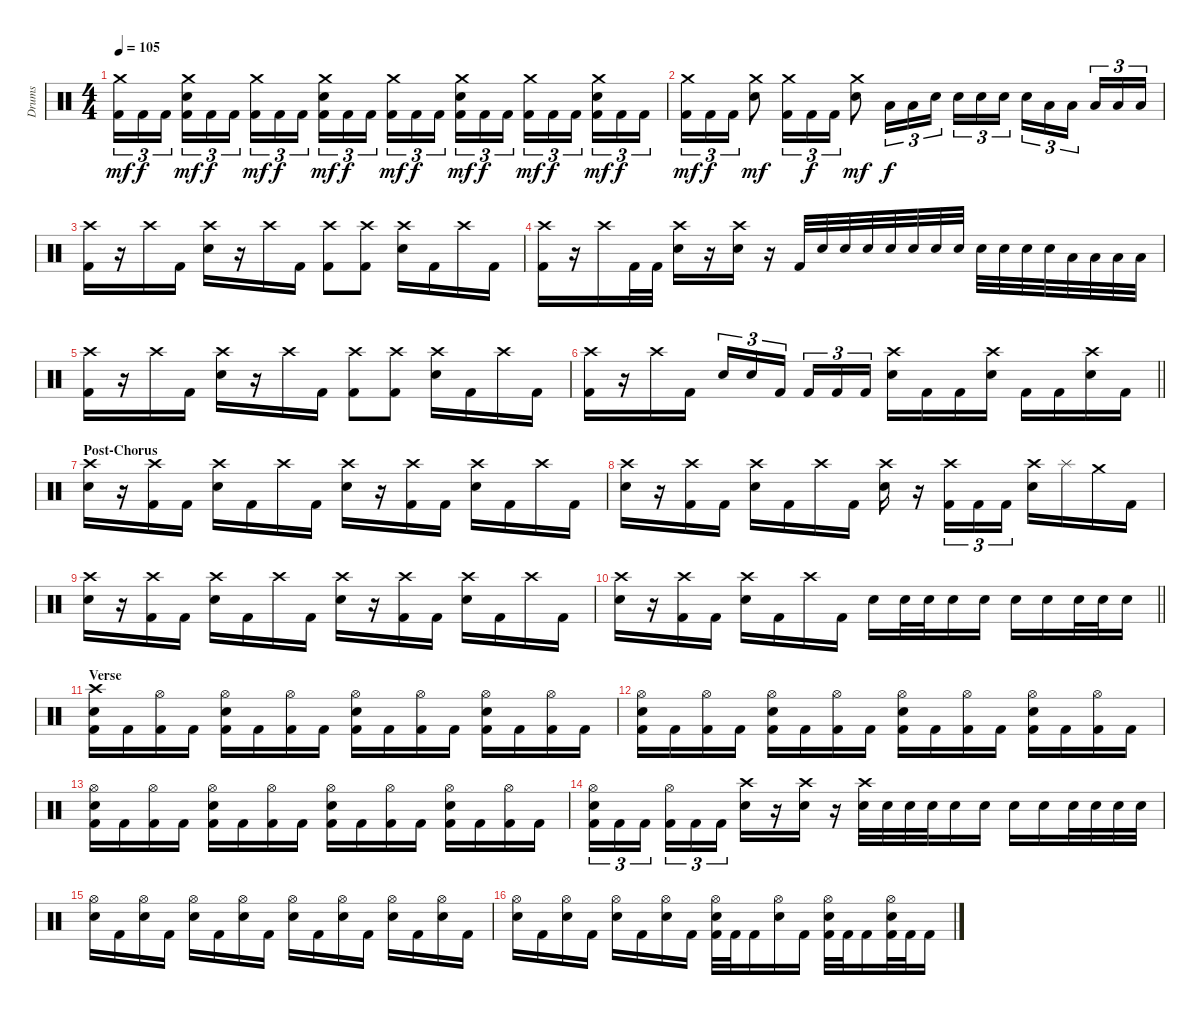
\track ("Drums" "Drums") {instrument percussion}
\staff {score}
\articulation defaults
\ts (4 4)
\tempo 105
\clef neutral
\ks c
("Crash medium (hit)" "Kick (hit) 2").16{tu (3 2) dy mf} "Kick (hit) 2".16{tu (3 2) dy f} "Kick (hit) 2".16{tu (3 2) beam splitsecondary} ("Crash medium (hit)" "Electric Snare (hit)" "Kick (hit) 2").16{tu (3 2) dy mf} "Kick (hit) 2".16{tu (3 2) dy f} "Kick (hit) 2".16{tu (3 2)} ("Crash medium (hit)" "Kick (hit) 2").16{tu (3 2) dy mf} "Kick (hit) 2".16{tu (3 2) dy f} "Kick (hit) 2".16{tu (3 2) beam splitsecondary} ("Crash medium (hit)" "Electric Snare (hit)" "Kick (hit) 2").16{tu (3 2) dy mf} "Kick (hit) 2".16{tu (3 2) dy f} "Kick (hit) 2".16{tu (3 2)} ("Crash medium (hit)" "Kick (hit) 2").16{tu (3 2) dy mf} "Kick (hit) 2".16{tu (3 2) dy f} "Kick (hit) 2".16{tu (3 2) beam splitsecondary} ("Crash medium (hit)" "Electric Snare (hit)" "Kick (hit) 2").16{tu (3 2) dy mf} "Kick (hit) 2".16{tu (3 2) dy f} "Kick (hit) 2".16{tu (3 2)} ("Crash medium (hit)" "Kick (hit) 2").16{tu (3 2) dy mf} "Kick (hit) 2".16{tu (3 2) dy f} "Kick (hit) 2".16{tu (3 2) beam splitsecondary} ("Crash medium (hit)" "Electric Snare (hit)" "Kick (hit) 2").16{tu (3 2) dy mf} "Kick (hit) 2".16{tu (3 2) dy f} "Kick (hit) 2".16{tu (3 2)} |
("Crash medium (hit)" "Kick (hit) 2").16{tu (3 2) dy mf} "Kick (hit) 2".16{tu (3 2) dy f} "Kick (hit) 2".16{tu (3 2)} ("Crash medium (hit)" "Electric Snare (hit)").8{dy mf} ("Crash medium (hit)" "Kick (hit) 2").16{tu (3 2)} "Kick (hit) 2".16{tu (3 2) dy f} "Kick (hit) 2".16{tu (3 2)} ("Crash medium (hit)" "Electric Snare (hit)").8{dy mf} "Low Tom (hit)".16{tu (3 2) dy f} "Low Tom (hit)".16{tu (3 2)} "Electric Snare (hit)".16{tu (3 2) beam splitsecondary} "Electric Snare (hit)".16{tu (3 2)} "Electric Snare (hit)".16{tu (3 2)} "Electric Snare (hit)".16{tu (3 2)} "Electric Snare (hit)".16{tu (3 2)} "Low Tom (hit)".16{tu (3 2)} "Low Tom (hit)".16{tu (3 2) beam splitsecondary} "Low Floor Tom (hit)".16{tu (3 2)} "Low Floor Tom (hit)".16{tu (3 2)} "Low Floor Tom (hit)".16{tu (3 2)} |
("Crash high (hit)" "Kick (hit) 2").16 r.16 "Crash high (hit)".16 "Kick (hit) 2".16 ("Crash high (hit)" "Electric Snare (hit)").16 r.16 "Crash high (hit)".16 "Kick (hit) 2".16 ("Crash high (hit)" "Kick (hit) 2").8 ("Crash high (hit)" "Kick (hit) 2").8 ("Crash high (hit)" "Electric Snare (hit)").16 "Kick (hit) 2".16 "Crash high (hit)".16 "Kick (hit) 2".16 |
("Crash high (hit)" "Kick (hit) 2").16 r.16 "Crash high (hit)".16 "Kick (hit) 2".32 "Kick (hit) 2".32 ("Crash high (hit)" "Electric Snare (hit)").16 r.16 ("Crash high (hit)" "Electric Snare (hit)").16 r.16 "Kick (hit) 2".32 "Electric Snare (hit)".32 "Electric Snare (hit)".32 "Electric Snare (hit)".32 "Electric Snare (hit)".32 "Electric Snare (hit)".32 "Electric Snare (hit)".32 "Electric Snare (hit)".32 "Electric Snare (hit)".32 "Electric Snare (hit)".32 "Electric Snare (hit)".32 "Electric Snare (hit)".32 "Low Tom (hit)".32 "Low Tom (hit)".32 "Low Tom (hit)".32 "Low Tom (hit)".32 |
("Crash high (hit)" "Kick (hit) 2").16 r.16 "Crash high (hit)".16 "Kick (hit) 2".16 ("Crash high (hit)" "Electric Snare (hit)").16 r.16 "Crash high (hit)".16 "Kick (hit) 2".16 ("Crash high (hit)" "Kick (hit) 2").8 ("Crash high (hit)" "Kick (hit) 2").8 ("Crash high (hit)" "Electric Snare (hit)").16 "Kick (hit) 2".16 "Crash high (hit)".16 "Kick (hit) 2".16 |
\barLineRight lightlight
("Crash high (hit)" "Kick (hit) 2").16 r.16 "Crash high (hit)".16 "Kick (hit) 2".16 "Electric Snare (hit)".16{tu (3 2)} "Electric Snare (hit)".16{tu (3 2)} "Kick (hit) 2".16{tu (3 2) beam splitsecondary} "Kick (hit) 2".16{tu (3 2)} "Kick (hit) 2".16{tu (3 2)} "Kick (hit) 2".16{tu (3 2)} ("Crash high (hit)" "Electric Snare (hit)").16 "Kick (hit) 2".16 "Kick (hit) 2".16 ("Crash high (hit)" "Electric Snare (hit)").16 "Kick (hit) 2".16 "Kick (hit) 2".16 ("Crash high (hit)" "Electric Snare (hit)").16 "Kick (hit) 2".16 |
\section ("" "Post-Chorus")
("Crash high (hit)" "Electric Snare (hit)").16 r.16 ("Crash high (hit)" "Kick (hit) 2").16 "Kick (hit) 2".16 ("Crash high (hit)" "Electric Snare (hit)").16 "Kick (hit) 2".16 "Crash high (hit)".16 "Kick (hit) 2".16 ("Crash high (hit)" "Electric Snare (hit)").16 r.16 ("Crash high (hit)" "Kick (hit) 2").16 "Kick (hit) 2".16 ("Crash high (hit)" "Electric Snare (hit)").16 "Kick (hit) 2".16 "Crash high (hit)".16 "Kick (hit) 2".16 |
("Crash high (hit)" "Electric Snare (hit)").16 r.16 ("Crash high (hit)" "Kick (hit) 2").16 "Kick (hit) 2".16 ("Crash high (hit)" "Electric Snare (hit)").16 "Kick (hit) 2".16 "Crash high (hit)".16 "Kick (hit) 2".16 ("Crash high (hit)" "Electric Snare (hit)").16 r.16 ("Crash high (hit)" "Kick (hit) 2").16{tu (3 2)} "Kick (hit) 2".16{tu (3 2)} "Kick (hit) 2".16{tu (3 2)} ("Crash high (hit)" "Electric Snare (hit)").16 "Splash (hit)".16 "Crash medium (hit)".16 "Kick (hit) 2".16 |
("Crash high (hit)" "Electric Snare (hit)").16 r.16 ("Crash high (hit)" "Kick (hit) 2").16 "Kick (hit) 2".16 ("Crash high (hit)" "Electric Snare (hit)").16 "Kick (hit) 2".16 "Crash high (hit)".16 "Kick (hit) 2".16 ("Crash high (hit)" "Electric Snare (hit)").16 r.16 ("Crash high (hit)" "Kick (hit) 2").16 "Kick (hit) 2".16 ("Crash high (hit)" "Electric Snare (hit)").16 "Kick (hit) 2".16 "Crash high (hit)".16 "Kick (hit) 2".16 |
\barLineRight lightlight
("Crash high (hit)" "Electric Snare (hit)").16 r.16 ("Crash high (hit)" "Kick (hit) 2").16 "Kick (hit) 2".16 ("Crash high (hit)" "Electric Snare (hit)").16 "Kick (hit) 2".16 "Crash high (hit)".16 "Kick (hit) 2".16 "Electric Snare (hit)".16 "Electric Snare (hit)".32 "Electric Snare (hit)".32 "Electric Snare (hit)".16 "Electric Snare (hit)".16 "Electric Snare (hit)".16 "Electric Snare (hit)".16 "Electric Snare (hit)".32 "Electric Snare (hit)".32 "Electric Snare (hit)".16 |
\section ("" "Verse")
("Crash high (hit)" "Electric Snare (hit)" "Kick (hit) 2").16 "Kick (hit) 2".16 ("Hi-Hat (open)" "Kick (hit) 2").16 "Kick (hit) 2".16 ("Hi-Hat (open)" "Electric Snare (hit)" "Kick (hit) 2").16 "Kick (hit) 2".16 ("Hi-Hat (open)" "Kick (hit) 2").16 "Kick (hit) 2".16 ("Hi-Hat (open)" "Electric Snare (hit)" "Kick (hit) 2").16 "Kick (hit) 2".16 ("Hi-Hat (open)" "Kick (hit) 2").16 "Kick (hit) 2".16 ("Hi-Hat (open)" "Electric Snare (hit)" "Kick (hit) 2").16 "Kick (hit) 2".16 ("Hi-Hat (open)" "Kick (hit) 2").16 "Kick (hit) 2".16 |
("Hi-Hat (open)" "Electric Snare (hit)" "Kick (hit) 2").16 "Kick (hit) 2".16 ("Hi-Hat (open)" "Kick (hit) 2").16 "Kick (hit) 2".16 ("Hi-Hat (open)" "Electric Snare (hit)" "Kick (hit) 2").16 "Kick (hit) 2".16 ("Hi-Hat (open)" "Kick (hit) 2").16 "Kick (hit) 2".16 ("Hi-Hat (open)" "Electric Snare (hit)" "Kick (hit) 2").16 "Kick (hit) 2".16 ("Hi-Hat (open)" "Kick (hit) 2").16 "Kick (hit) 2".16 ("Hi-Hat (open)" "Electric Snare (hit)" "Kick (hit) 2").16 "Kick (hit) 2".16 ("Hi-Hat (open)" "Kick (hit) 2").16 "Kick (hit) 2".16 |
("Hi-Hat (open)" "Electric Snare (hit)" "Kick (hit) 2").16 "Kick (hit) 2".16 ("Hi-Hat (open)" "Kick (hit) 2").16 "Kick (hit) 2".16 ("Hi-Hat (open)" "Electric Snare (hit)" "Kick (hit) 2").16 "Kick (hit) 2".16 ("Hi-Hat (open)" "Kick (hit) 2").16 "Kick (hit) 2".16 ("Hi-Hat (open)" "Electric Snare (hit)" "Kick (hit) 2").16 "Kick (hit) 2".16 ("Hi-Hat (open)" "Kick (hit) 2").16 "Kick (hit) 2".16 ("Hi-Hat (open)" "Electric Snare (hit)" "Kick (hit) 2").16 "Kick (hit) 2".16 ("Hi-Hat (open)" "Kick (hit) 2").16 "Kick (hit) 2".16 |
("Hi-Hat (open)" "Electric Snare (hit)" "Kick (hit) 2").16{tu (3 2)} "Kick (hit) 2".16{tu (3 2)} "Kick (hit) 2".16{tu (3 2) beam splitsecondary} ("Hi-Hat (open)" "Kick (hit) 2").16{tu (3 2)} "Kick (hit) 2".16{tu (3 2)} "Kick (hit) 2".16{tu (3 2)} ("Crash high (hit)" "Electric Snare (hit)").16 r.16 ("Crash high (hit)" "Electric Snare (hit)").16 r.16 ("Crash high (hit)" "Electric Snare (hit)").32 "Electric Snare (hit)".32 "Electric Snare (hit)".32 "Electric Snare (hit)".32 "Electric Snare (hit)".16 "Electric Snare (hit)".16 "Electric Snare (hit)".16 "Electric Snare (hit)".16 "Electric Snare (hit)".32 "Electric Snare (hit)".32 "Electric Snare (hit)".32 "Electric Snare (hit)".32 |
("Hi-Hat (open)" "Electric Snare (hit)").16 "Kick (hit) 2".16 ("Hi-Hat (open)" "Electric Snare (hit)").16 "Kick (hit) 2".16 ("Hi-Hat (open)" "Electric Snare (hit)").16 "Kick (hit) 2".16 ("Hi-Hat (open)" "Electric Snare (hit)").16 "Kick (hit) 2".16 ("Hi-Hat (open)" "Electric Snare (hit)").16 "Kick (hit) 2".16 ("Hi-Hat (open)" "Electric Snare (hit)").16 "Kick (hit) 2".16 ("Hi-Hat (open)" "Electric Snare (hit)").16 "Kick (hit) 2".16 ("Hi-Hat (open)" "Electric Snare (hit)").16 "Kick (hit) 2".16 |
("Hi-Hat (open)" "Electric Snare (hit)").16 "Kick (hit) 2".16 ("Hi-Hat (open)" "Electric Snare (hit)").16 "Kick (hit) 2".16 ("Hi-Hat (open)" "Electric Snare (hit)").16 "Kick (hit) 2".16 ("Hi-Hat (open)" "Electric Snare (hit)").16 "Kick (hit) 2".16 ("Hi-Hat (open)" "Electric Snare (hit)" "Kick (hit) 2").32 "Kick (hit) 2".32 "Kick (hit) 2".16 ("Hi-Hat (open)" "Electric Snare (hit)").16 "Kick (hit) 2".16 ("Hi-Hat (open)" "Electric Snare (hit)" "Kick (hit) 2").32 "Kick (hit) 2".32 "Kick (hit) 2".16 ("Hi-Hat (open)" "Electric Snare (hit)" "Kick (hit) 2").32 "Kick (hit) 2".32 "Kick (hit) 2".16
